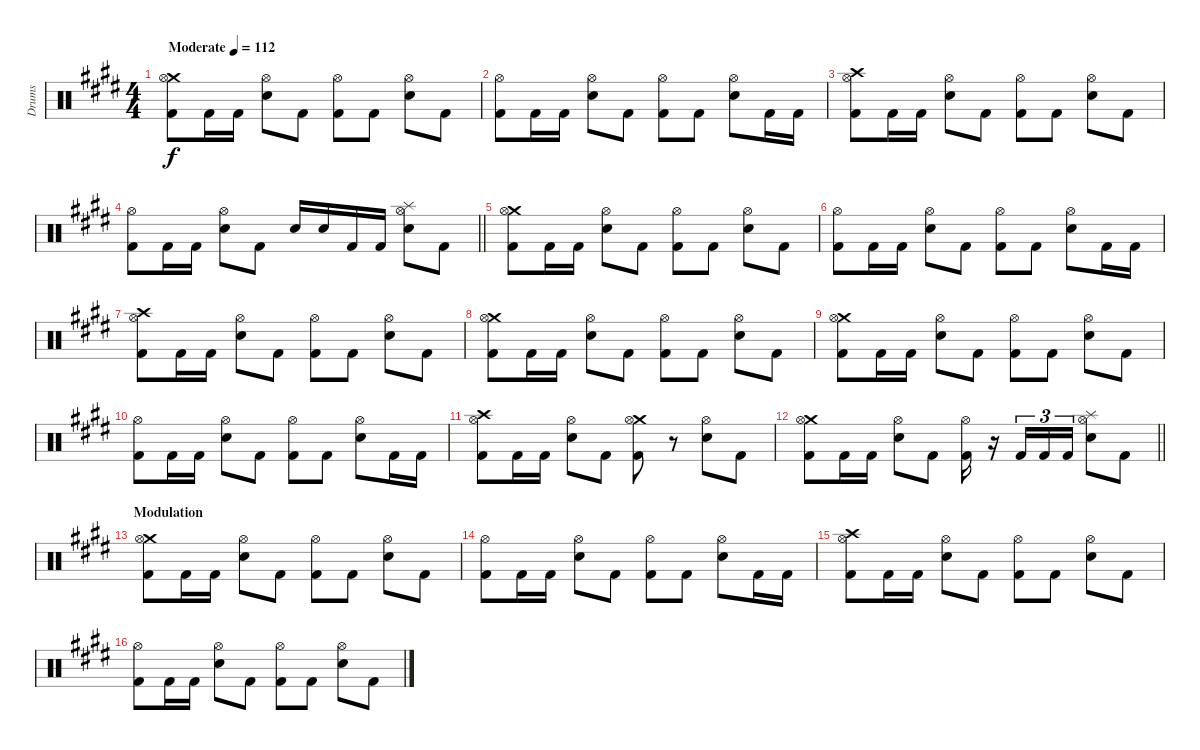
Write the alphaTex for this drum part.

\track ("Drums" "Drums") {instrument percussion}
\staff {score}
\articulation defaults
\ts (4 4)
\section ("" "")
\tempo (112 "Moderate")
\clef neutral
\ks c#minor
("Crash medium (hit)" "Hi-Hat (open)" "Kick (hit) 2").8{dy f} "Kick (hit) 2".16 "Kick (hit) 2".16 ("Hi-Hat (open)" "Electric Snare (hit)").8 "Kick (hit) 2".8 ("Hi-Hat (open)" "Kick (hit) 2").8 "Kick (hit) 2".8 ("Hi-Hat (open)" "Electric Snare (hit)").8 "Kick (hit) 2".8 |
("Hi-Hat (open)" "Kick (hit) 2").8 "Kick (hit) 2".16 "Kick (hit) 2".16 ("Hi-Hat (open)" "Electric Snare (hit)").8 "Kick (hit) 2".8 ("Hi-Hat (open)" "Kick (hit) 2").8 "Kick (hit) 2".8 ("Hi-Hat (open)" "Electric Snare (hit)").8 "Kick (hit) 2".16 "Kick (hit) 2".16 |
("Crash high (hit)" "Hi-Hat (open)" "Kick (hit) 2").8 "Kick (hit) 2".16 "Kick (hit) 2".16 ("Hi-Hat (open)" "Electric Snare (hit)").8 "Kick (hit) 2".8 ("Hi-Hat (open)" "Kick (hit) 2").8 "Kick (hit) 2".8 ("Hi-Hat (open)" "Electric Snare (hit)").8 "Kick (hit) 2".8 |
\barLineRight lightlight
("Hi-Hat (open)" "Kick (hit) 2").8 "Kick (hit) 2".16 "Kick (hit) 2".16 ("Hi-Hat (open)" "Electric Snare (hit)").8 "Kick (hit) 2".8 "Electric Snare (hit)".16 "Electric Snare (hit)".16 "Kick (hit) 2".16 "Kick (hit) 2".16 ("Splash (hit)" "Hi-Hat (open)" "Electric Snare (hit)").8 "Kick (hit) 2".8 |
\section ("" "")
("Crash medium (hit)" "Hi-Hat (open)" "Kick (hit) 2").8 "Kick (hit) 2".16 "Kick (hit) 2".16 ("Hi-Hat (open)" "Electric Snare (hit)").8 "Kick (hit) 2".8 ("Hi-Hat (open)" "Kick (hit) 2").8 "Kick (hit) 2".8 ("Hi-Hat (open)" "Electric Snare (hit)").8 "Kick (hit) 2".8 |
("Hi-Hat (open)" "Kick (hit) 2").8 "Kick (hit) 2".16 "Kick (hit) 2".16 ("Hi-Hat (open)" "Electric Snare (hit)").8 "Kick (hit) 2".8 ("Hi-Hat (open)" "Kick (hit) 2").8 "Kick (hit) 2".8 ("Hi-Hat (open)" "Electric Snare (hit)").8 "Kick (hit) 2".16 "Kick (hit) 2".16 |
("Crash high (hit)" "Hi-Hat (open)" "Kick (hit) 2").8 "Kick (hit) 2".16 "Kick (hit) 2".16 ("Hi-Hat (open)" "Electric Snare (hit)").8 "Kick (hit) 2".8 ("Hi-Hat (open)" "Kick (hit) 2").8 "Kick (hit) 2".8 ("Hi-Hat (open)" "Electric Snare (hit)").8 "Kick (hit) 2".8 |
("Crash medium (hit)" "Hi-Hat (open)" "Kick (hit) 2").8 "Kick (hit) 2".16 "Kick (hit) 2".16 ("Hi-Hat (open)" "Electric Snare (hit)").8 "Kick (hit) 2".8 ("Hi-Hat (open)" "Kick (hit) 2").8 "Kick (hit) 2".8 ("Hi-Hat (open)" "Electric Snare (hit)").8 "Kick (hit) 2".8 |
("Crash medium (hit)" "Hi-Hat (open)" "Kick (hit) 2").8 "Kick (hit) 2".16 "Kick (hit) 2".16 ("Hi-Hat (open)" "Electric Snare (hit)").8 "Kick (hit) 2".8 ("Hi-Hat (open)" "Kick (hit) 2").8 "Kick (hit) 2".8 ("Hi-Hat (open)" "Electric Snare (hit)").8 "Kick (hit) 2".8 |
("Hi-Hat (open)" "Kick (hit) 2").8 "Kick (hit) 2".16 "Kick (hit) 2".16 ("Hi-Hat (open)" "Electric Snare (hit)").8 "Kick (hit) 2".8 ("Hi-Hat (open)" "Kick (hit) 2").8 "Kick (hit) 2".8 ("Hi-Hat (open)" "Electric Snare (hit)").8 "Kick (hit) 2".16 "Kick (hit) 2".16 |
("Crash high (hit)" "Hi-Hat (open)" "Kick (hit) 2").8 "Kick (hit) 2".16 "Kick (hit) 2".16 ("Hi-Hat (open)" "Electric Snare (hit)").8 "Kick (hit) 2".8 ("Crash medium (hit)" "Hi-Hat (open)" "Kick (hit) 2").8 r.8 ("Hi-Hat (open)" "Electric Snare (hit)").8 "Kick (hit) 2".8 |
\barLineRight lightlight
("Crash medium (hit)" "Hi-Hat (open)" "Kick (hit) 2").8 "Kick (hit) 2".16 "Kick (hit) 2".16 ("Hi-Hat (open)" "Electric Snare (hit)").8 "Kick (hit) 2".8 ("Hi-Hat (open)" "Kick (hit) 2").16 r.16 "Kick (hit) 2".16{tu (3 2)} "Kick (hit) 2".16{tu (3 2)} "Kick (hit) 2".16{tu (3 2)} ("Splash (hit)" "Hi-Hat (open)" "Electric Snare (hit)").8 "Kick (hit) 2".8 |
\section ("" "Modulation")
("Crash medium (hit)" "Hi-Hat (open)" "Kick (hit) 2").8 "Kick (hit) 2".16 "Kick (hit) 2".16 ("Hi-Hat (open)" "Electric Snare (hit)").8 "Kick (hit) 2".8 ("Hi-Hat (open)" "Kick (hit) 2").8 "Kick (hit) 2".8 ("Hi-Hat (open)" "Electric Snare (hit)").8 "Kick (hit) 2".8 |
("Hi-Hat (open)" "Kick (hit) 2").8 "Kick (hit) 2".16 "Kick (hit) 2".16 ("Hi-Hat (open)" "Electric Snare (hit)").8 "Kick (hit) 2".8 ("Hi-Hat (open)" "Kick (hit) 2").8 "Kick (hit) 2".8 ("Hi-Hat (open)" "Electric Snare (hit)").8 "Kick (hit) 2".16 "Kick (hit) 2".16 |
("Crash high (hit)" "Hi-Hat (open)" "Kick (hit) 2").8 "Kick (hit) 2".16 "Kick (hit) 2".16 ("Hi-Hat (open)" "Electric Snare (hit)").8 "Kick (hit) 2".8 ("Hi-Hat (open)" "Kick (hit) 2").8 "Kick (hit) 2".8 ("Hi-Hat (open)" "Electric Snare (hit)").8 "Kick (hit) 2".8 |
("Hi-Hat (open)" "Kick (hit) 2").8 "Kick (hit) 2".16 "Kick (hit) 2".16 ("Hi-Hat (open)" "Electric Snare (hit)").8 "Kick (hit) 2".8 ("Hi-Hat (open)" "Kick (hit) 2").8 "Kick (hit) 2".8 ("Hi-Hat (open)" "Electric Snare (hit)").8 "Kick (hit) 2".8
